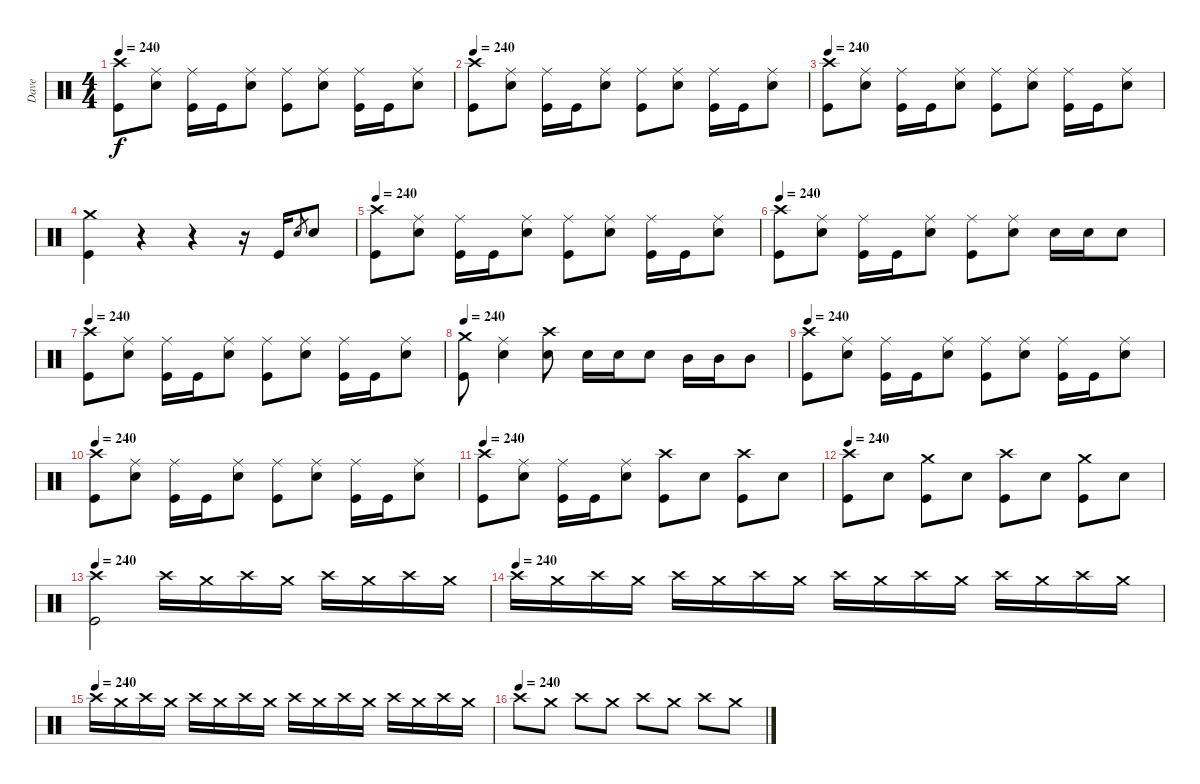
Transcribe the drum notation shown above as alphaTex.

\track ("Dave" "Dave") {instrument percussion}
\staff {score}
\articulation defaults
\ts (4 4)
\tempo 240
\clef neutral
\ks c
("Crash high (hit)" "Kick (hit)").8{dy f} ("Ride (middle)" "Snare (hit) 2").8 ("Ride (middle)" "Kick (hit)").16 "Kick (hit)".16 ("Ride (middle)" "Snare (hit) 2").8 ("Ride (middle)" "Kick (hit)").8 ("Ride (middle)" "Snare (hit) 2").8 ("Ride (middle)" "Kick (hit)").16 "Kick (hit)".16 ("Ride (middle)" "Snare (hit) 2").8 |
\tempo 240
("Crash high (hit)" "Kick (hit)").8 ("Ride (middle)" "Snare (hit) 2").8 ("Ride (middle)" "Kick (hit)").16 "Kick (hit)".16 ("Ride (middle)" "Snare (hit) 2").8 ("Ride (middle)" "Kick (hit)").8 ("Ride (middle)" "Snare (hit) 2").8 ("Ride (middle)" "Kick (hit)").16 "Kick (hit)".16 ("Ride (middle)" "Snare (hit) 2").8 |
\tempo 240
("Crash high (hit)" "Kick (hit)").8 ("Ride (middle)" "Snare (hit) 2").8 ("Ride (middle)" "Kick (hit)").16 "Kick (hit)".16 ("Ride (middle)" "Snare (hit) 2").8 ("Ride (middle)" "Kick (hit)").8 ("Ride (middle)" "Snare (hit) 2").8 ("Ride (middle)" "Kick (hit)").16 "Kick (hit)".16 ("Ride (middle)" "Snare (hit) 2").8 |
("Crash medium (hit)" "Kick (hit)").4 r.4 r.4 r.16 "Kick (hit)".16 "Snare (hit) 2".8{gr} "Snare (hit) 2".8 |
\tempo 240
("Crash high (hit)" "Kick (hit)").8 ("Ride (middle)" "Snare (hit) 2").8 ("Ride (middle)" "Kick (hit)").16 "Kick (hit)".16 ("Ride (middle)" "Snare (hit) 2").8 ("Ride (middle)" "Kick (hit)").8 ("Ride (middle)" "Snare (hit) 2").8 ("Ride (middle)" "Kick (hit)").16 "Kick (hit)".16 ("Ride (middle)" "Snare (hit) 2").8 |
\tempo 240
("Crash high (hit)" "Kick (hit)").8 ("Ride (middle)" "Snare (hit) 2").8 ("Ride (middle)" "Kick (hit)").16 "Kick (hit)".16 ("Ride (middle)" "Snare (hit) 2").8 ("Ride (middle)" "Kick (hit)").8 ("Ride (middle)" "Snare (hit) 2").8 "Snare (hit) 2".16 "Snare (hit) 2".16 "Snare (hit) 2".8 |
\tempo 240
("Crash high (hit)" "Kick (hit)").8 ("Ride (middle)" "Snare (hit) 2").8 ("Ride (middle)" "Kick (hit)").16 "Kick (hit)".16 ("Ride (middle)" "Snare (hit) 2").8 ("Ride (middle)" "Kick (hit)").8 ("Ride (middle)" "Snare (hit) 2").8 ("Ride (middle)" "Kick (hit)").16 "Kick (hit)".16 ("Ride (middle)" "Snare (hit) 2").8 |
\tempo 240
("Crash medium (hit)" "Kick (hit)").8 ("Ride (middle)" "Snare (hit) 2").4 ("Crash high (hit)" "Snare (hit) 2").8 "Snare (hit) 2".16 "Snare (hit) 2".16 "Snare (hit) 2".8 "Mid Tom (hit)".16 "Mid Tom (hit)".16 "Mid Tom (hit)".8 |
\tempo 240
("Crash high (hit)" "Kick (hit)").8 ("Ride (middle)" "Snare (hit) 2").8 ("Ride (middle)" "Kick (hit)").16 "Kick (hit)".16 ("Ride (middle)" "Snare (hit) 2").8 ("Ride (middle)" "Kick (hit)").8 ("Ride (middle)" "Snare (hit) 2").8 ("Ride (middle)" "Kick (hit)").16 "Kick (hit)".16 ("Ride (middle)" "Snare (hit) 2").8 |
\tempo 240
("Crash high (hit)" "Kick (hit)").8 ("Ride (middle)" "Snare (hit) 2").8 ("Ride (middle)" "Kick (hit)").16 "Kick (hit)".16 ("Ride (middle)" "Snare (hit) 2").8 ("Ride (middle)" "Kick (hit)").8 ("Ride (middle)" "Snare (hit) 2").8 ("Ride (middle)" "Kick (hit)").16 "Kick (hit)".16 ("Ride (middle)" "Snare (hit) 2").8 |
\tempo 240
("Crash high (hit)" "Kick (hit)").8 ("Ride (middle)" "Snare (hit) 2").8 ("Ride (middle)" "Kick (hit)").16 "Kick (hit)".16 ("Ride (middle)" "Snare (hit) 2").8 ("Crash high (hit)" "Kick (hit)").8 "Snare (hit) 2".8 ("Crash high (hit)" "Kick (hit)").8 "Snare (hit) 2".8 |
\tempo 240
("Crash high (hit)" "Kick (hit)").8 "Snare (hit) 2".8 ("Crash medium (hit)" "Kick (hit)").8 "Snare (hit) 2".8 ("Crash high (hit)" "Kick (hit)").8 "Snare (hit) 2".8 ("Crash medium (hit)" "Kick (hit)").8 "Snare (hit) 2".8 |
\tempo 240
("Crash high (hit)" "Kick (hit)").2 "Crash high (hit)".16 "Crash medium (hit)".16 "Crash high (hit)".16 "Crash medium (hit)".16 "Crash high (hit)".16 "Crash medium (hit)".16 "Crash high (hit)".16 "Crash medium (hit)".16 |
\tempo (240)
"Crash high (hit)".16 "Crash medium (hit)".16 "Crash high (hit)".16 "Crash medium (hit)".16 "Crash high (hit)".16 "Crash medium (hit)".16 "Crash high (hit)".16 "Crash medium (hit)".16 "Crash high (hit)".16 "Crash medium (hit)".16 "Crash high (hit)".16 "Crash medium (hit)".16 "Crash high (hit)".16 "Crash medium (hit)".16 "Crash high (hit)".16 "Crash medium (hit)".16 |
\tempo (240)
"Crash high (hit)".16 "Crash medium (hit)".16 "Crash high (hit)".16 "Crash medium (hit)".16 "Crash high (hit)".16 "Crash medium (hit)".16 "Crash high (hit)".16 "Crash medium (hit)".16 "Crash high (hit)".16 "Crash medium (hit)".16 "Crash high (hit)".16 "Crash medium (hit)".16 "Crash high (hit)".16 "Crash medium (hit)".16 "Crash high (hit)".16 "Crash medium (hit)".16 |
\tempo (240)
"Crash high (hit)".8 "Crash medium (hit)".8 "Crash high (hit)".8 "Crash medium (hit)".8 "Crash high (hit)".8 "Crash medium (hit)".8 "Crash high (hit)".8 "Crash medium (hit)".8
